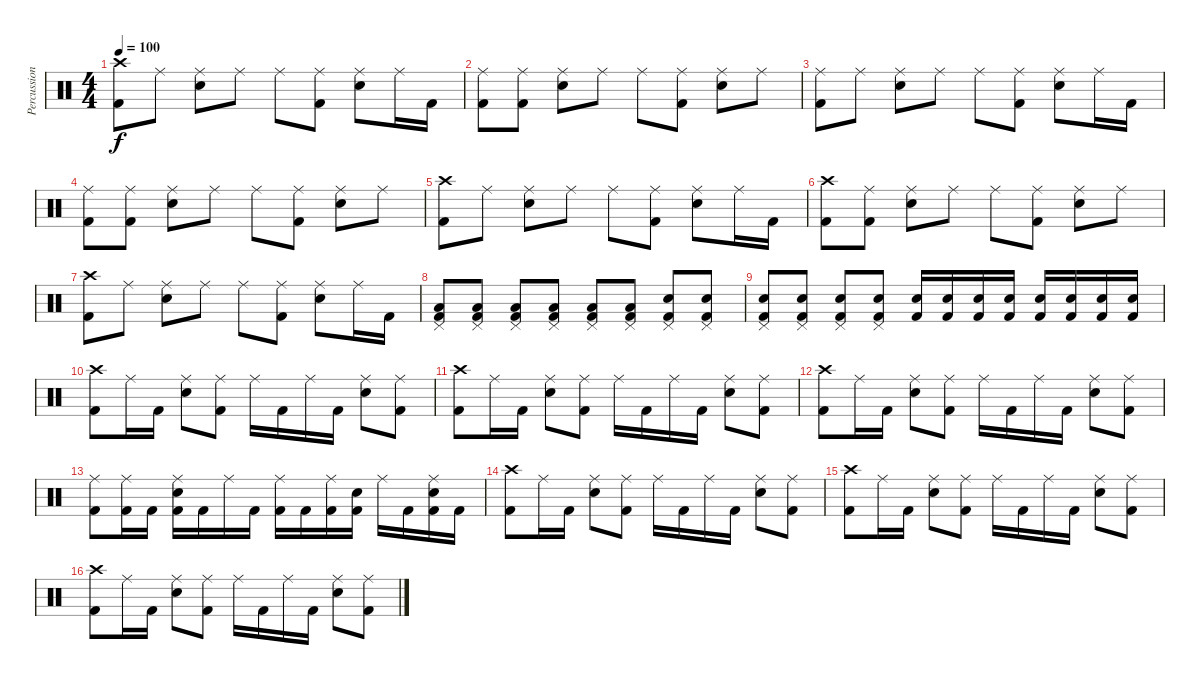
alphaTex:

\track ("Percussions" "Percussion") {instrument percussion}
\staff {score}
\articulation defaults
\ts (4 4)
\tempo 100
\clef neutral
\ks c
("Crash high (hit)" "Kick (hit) 2").8{dy f} "Ride (middle)".8 ("Ride (middle)" "Electric Snare (hit)").8 "Ride (middle)".8 "Ride (middle)".8 ("Ride (middle)" "Kick (hit) 2").8 ("Ride (middle)" "Electric Snare (hit)").8 "Ride (middle)".16 "Kick (hit) 2".16 |
("Ride (middle)" "Kick (hit) 2").8 ("Ride (middle)" "Kick (hit) 2").8 ("Ride (middle)" "Electric Snare (hit)").8 "Ride (middle)".8 "Ride (middle)".8 ("Ride (middle)" "Kick (hit) 2").8 ("Ride (middle)" "Electric Snare (hit)").8 "Ride (middle)".8 |
("Ride (middle)" "Kick (hit) 2").8 "Ride (middle)".8 ("Ride (middle)" "Electric Snare (hit)").8 "Ride (middle)".8 "Ride (middle)".8 ("Ride (middle)" "Kick (hit) 2").8 ("Ride (middle)" "Electric Snare (hit)").8 "Ride (middle)".16 "Kick (hit) 2".16 |
("Ride (middle)" "Kick (hit) 2").8 ("Ride (middle)" "Kick (hit) 2").8 ("Ride (middle)" "Electric Snare (hit)").8 "Ride (middle)".8 "Ride (middle)".8 ("Ride (middle)" "Kick (hit) 2").8 ("Ride (middle)" "Electric Snare (hit)").8 "Ride (middle)".8 |
("Crash high (hit)" "Kick (hit) 2").8 "Ride (middle)".8 ("Ride (middle)" "Electric Snare (hit)").8 "Ride (middle)".8 "Ride (middle)".8 ("Ride (middle)" "Kick (hit) 2").8 ("Ride (middle)" "Electric Snare (hit)").8 "Ride (middle)".16 "Kick (hit) 2".16 |
("Crash high (hit)" "Kick (hit) 2").8 ("Ride (middle)" "Kick (hit) 2").8 ("Ride (middle)" "Electric Snare (hit)").8 "Ride (middle)".8 "Ride (middle)".8 ("Ride (middle)" "Kick (hit) 2").8 ("Ride (middle)" "Electric Snare (hit)").8 "Ride (middle)".8 |
("Crash high (hit)" "Kick (hit) 2").8 "Ride (middle)".8 ("Ride (middle)" "Electric Snare (hit)").8 "Ride (middle)".8 "Ride (middle)".8 ("Ride (middle)" "Kick (hit) 2").8 ("Ride (middle)" "Electric Snare (hit)").8 "Ride (middle)".16 "Kick (hit) 2".16 |
("Low Floor Tom (hit)" "Pedal Hi-Hat (hit)" "Kick (hit) 2").8 ("Low Floor Tom (hit)" "Pedal Hi-Hat (hit)" "Kick (hit) 2").8 ("Low Floor Tom (hit)" "Pedal Hi-Hat (hit)" "Kick (hit) 2").8 ("Low Floor Tom (hit)" "Pedal Hi-Hat (hit)" "Kick (hit) 2").8 ("Low Floor Tom (hit)" "Pedal Hi-Hat (hit)" "Kick (hit) 2").8 ("Low Floor Tom (hit)" "Pedal Hi-Hat (hit)" "Kick (hit) 2").8 ("Electric Snare (hit)" "Pedal Hi-Hat (hit)" "Kick (hit) 2").8 ("Electric Snare (hit)" "Pedal Hi-Hat (hit)" "Kick (hit) 2").8 |
("Electric Snare (hit)" "Pedal Hi-Hat (hit)" "Kick (hit) 2").8 ("Electric Snare (hit)" "Pedal Hi-Hat (hit)" "Kick (hit) 2").8 ("Electric Snare (hit)" "Pedal Hi-Hat (hit)" "Kick (hit) 2").8 ("Electric Snare (hit)" "Pedal Hi-Hat (hit)" "Kick (hit) 2").8 ("Electric Snare (hit)" "Kick (hit) 2").16 ("Electric Snare (hit)" "Kick (hit) 2").16 ("Electric Snare (hit)" "Kick (hit) 2").16 ("Electric Snare (hit)" "Kick (hit) 2").16 ("Electric Snare (hit)" "Kick (hit) 2").16 ("Electric Snare (hit)" "Kick (hit) 2").16 ("Electric Snare (hit)" "Kick (hit) 2").16 ("Electric Snare (hit)" "Kick (hit) 2").16 |
("Crash high (hit)" "Kick (hit) 2").8 "Ride (middle)".16 "Kick (hit) 2".16 ("Ride (middle)" "Electric Snare (hit)").8 ("Ride (middle)" "Kick (hit) 2").8 "Ride (middle)".16 "Kick (hit) 2".16 "Ride (middle)".16 "Kick (hit) 2".16 ("Ride (middle)" "Electric Snare (hit)").8 ("Ride (middle)" "Kick (hit) 2").8 |
("Crash high (hit)" "Kick (hit) 2").8 "Ride (middle)".16 "Kick (hit) 2".16 ("Ride (middle)" "Electric Snare (hit)").8 ("Ride (middle)" "Kick (hit) 2").8 "Ride (middle)".16 "Kick (hit) 2".16 "Ride (middle)".16 "Kick (hit) 2".16 ("Ride (middle)" "Electric Snare (hit)").8 ("Ride (middle)" "Kick (hit) 2").8 |
("Crash high (hit)" "Kick (hit) 2").8 "Ride (middle)".16 "Kick (hit) 2".16 ("Ride (middle)" "Electric Snare (hit)").8 ("Ride (middle)" "Kick (hit) 2").8 "Ride (middle)".16 "Kick (hit) 2".16 "Ride (middle)".16 "Kick (hit) 2".16 ("Ride (middle)" "Electric Snare (hit)").8 ("Ride (middle)" "Kick (hit) 2").8 |
("Ride (middle)" "Kick (hit) 2").8 ("Ride (middle)" "Kick (hit) 2").16 "Kick (hit) 2".16 ("Ride (middle)" "Electric Snare (hit)" "Kick (hit) 2").16 "Kick (hit) 2".16 "Ride (middle)".16 "Kick (hit) 2".16 ("Ride (middle)" "Kick (hit) 2").16 "Kick (hit) 2".16 ("Ride (middle)" "Kick (hit) 2").16 ("Electric Snare (hit)" "Kick (hit) 2").16 "Ride (middle)".16 "Kick (hit) 2".16 ("Ride (middle)" "Electric Snare (hit)" "Kick (hit) 2").16 "Kick (hit) 2".16 |
("Crash high (hit)" "Kick (hit) 2").8 "Ride (middle)".16 "Kick (hit) 2".16 ("Ride (middle)" "Electric Snare (hit)").8 ("Ride (middle)" "Kick (hit) 2").8 "Ride (middle)".16 "Kick (hit) 2".16 "Ride (middle)".16 "Kick (hit) 2".16 ("Ride (middle)" "Electric Snare (hit)").8 ("Ride (middle)" "Kick (hit) 2").8 |
("Crash high (hit)" "Kick (hit) 2").8 "Ride (middle)".16 "Kick (hit) 2".16 ("Ride (middle)" "Electric Snare (hit)").8 ("Ride (middle)" "Kick (hit) 2").8 "Ride (middle)".16 "Kick (hit) 2".16 "Ride (middle)".16 "Kick (hit) 2".16 ("Ride (middle)" "Electric Snare (hit)").8 ("Ride (middle)" "Kick (hit) 2").8 |
("Crash high (hit)" "Kick (hit) 2").8 "Ride (middle)".16 "Kick (hit) 2".16 ("Ride (middle)" "Electric Snare (hit)").8 ("Ride (middle)" "Kick (hit) 2").8 "Ride (middle)".16 "Kick (hit) 2".16 "Ride (middle)".16 "Kick (hit) 2".16 ("Ride (middle)" "Electric Snare (hit)").8 ("Ride (middle)" "Kick (hit) 2").8
